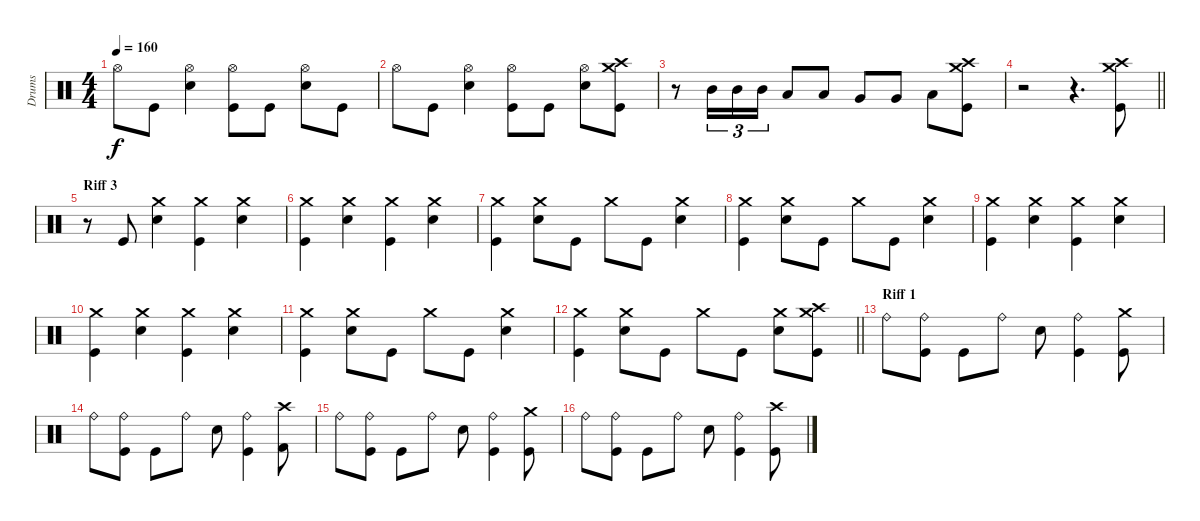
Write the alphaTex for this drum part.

\track ("Drums" "Drums") {instrument percussion}
\staff {score}
\articulation defaults
\ts (4 4)
\tempo 160
\clef neutral
\ks c "Hi-Hat (open)".8{dy f} "Kick (hit)".8
("Hi-Hat (open)" "Electric Snare (hit)").4 ("Kick (hit)" "Hi-Hat (open)").8 "Kick (hit)".8 ("Hi-Hat (open)" "Electric Snare (hit)").8 "Kick (hit)".8 |
"Hi-Hat (open)".8 "Kick (hit)".8 ("Hi-Hat (open)" "Electric Snare (hit)").4 ("Kick (hit)" "Hi-Hat (open)").8 "Kick (hit)".8 ("Hi-Hat (open)" "Electric Snare (hit)").8 ("Kick (hit)" "Crash medium (hit)" "Crash high (hit)").8 |
r.8 "Mid Tom (hit)".16{tu (3 2)} "Mid Tom (hit)".16{tu (3 2)} "Mid Tom (hit)".16{tu (3 2)} "Low Tom (hit)".8 "Low Tom (hit)".8 "Very Low Tom (hit)".8 "Very Low Tom (hit)".8 "Low Floor Tom (hit)".8 ("Kick (hit)" "Crash medium (hit)" "Crash high (hit)").8 |
\barLineRight lightlight
r.2 r.4{d} ("Kick (hit)" "Crash medium (hit)" "Crash high (hit)").8 |
\section ("" "Riff 3")
r.8 "Kick (hit)".8 ("Crash medium (hit)" "Electric Snare (hit)").4 ("Kick (hit)" "Crash medium (hit)").4 ("Crash medium (hit)" "Electric Snare (hit)").4 |
("Kick (hit)" "Crash medium (hit)").4 ("Crash medium (hit)" "Electric Snare (hit)").4 ("Kick (hit)" "Crash medium (hit)").4 ("Crash medium (hit)" "Electric Snare (hit)").4 |
("Kick (hit)" "Crash medium (hit)").4 ("Crash medium (hit)" "Electric Snare (hit)").8 "Kick (hit)".8 "Crash medium (hit)".8 "Kick (hit)".8 ("Crash medium (hit)" "Electric Snare (hit)").4 |
("Kick (hit)" "Crash medium (hit)").4 ("Crash medium (hit)" "Electric Snare (hit)").8 "Kick (hit)".8 "Crash medium (hit)".8 "Kick (hit)".8 ("Crash medium (hit)" "Electric Snare (hit)").4 |
("Kick (hit)" "Crash medium (hit)").4 ("Crash medium (hit)" "Electric Snare (hit)").4 ("Kick (hit)" "Crash medium (hit)").4 ("Crash medium (hit)" "Electric Snare (hit)").4 |
("Kick (hit)" "Crash medium (hit)").4 ("Crash medium (hit)" "Electric Snare (hit)").4 ("Kick (hit)" "Crash medium (hit)").4 ("Crash medium (hit)" "Electric Snare (hit)").4 |
("Kick (hit)" "Crash medium (hit)").4 ("Crash medium (hit)" "Electric Snare (hit)").8 "Kick (hit)".8 "Crash medium (hit)".8 "Kick (hit)".8 ("Crash medium (hit)" "Electric Snare (hit)").4 |
\barLineRight lightlight
("Kick (hit)" "Crash medium (hit)").4 ("Crash medium (hit)" "Electric Snare (hit)").8 "Kick (hit)".8 "Crash medium (hit)".8 "Kick (hit)".8 ("Crash medium (hit)" "Electric Snare (hit)").8 ("Kick (hit)" "Crash high (hit)" "Crash medium (hit)").8 |
\section ("" "Riff 1")
"Ride (bell)".8 ("Kick (hit)" "Ride (bell)").8 "Kick (hit)".8 "Ride (bell)".8 "Electric Snare (hit)".8 ("Kick (hit)" "Ride (bell)").4 ("Kick (hit)" "Crash medium (hit)").8 |
"Ride (bell)".8 ("Kick (hit)" "Ride (bell)").8 "Kick (hit)".8 "Ride (bell)".8 "Electric Snare (hit)".8 ("Kick (hit)" "Ride (bell)").4 ("Kick (hit) 2" "Crash high (hit)").8 |
"Ride (bell)".8 ("Kick (hit)" "Ride (bell)").8 "Kick (hit)".8 "Ride (bell)".8 "Electric Snare (hit)".8 ("Kick (hit)" "Ride (bell)").4 ("Kick (hit)" "Crash medium (hit)").8 |
"Ride (bell)".8 ("Kick (hit)" "Ride (bell)").8 "Kick (hit)".8 "Ride (bell)".8 "Electric Snare (hit)".8 ("Kick (hit)" "Ride (bell)").4 ("Kick (hit)" "Crash high (hit)").8
